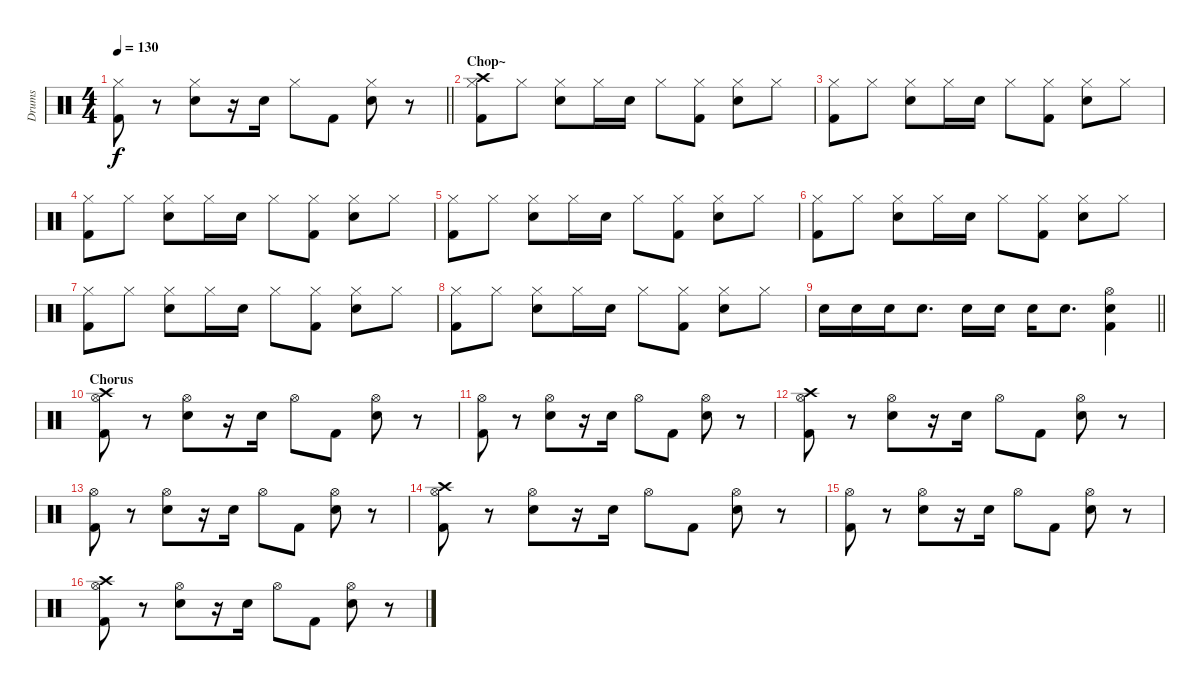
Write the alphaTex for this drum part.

\track ("Drums" "Drums") {instrument percussion}
\staff {score}
\articulation defaults
\ts (4 4)
\tempo 130
\clef neutral
\barLineRight lightlight
\ks c
("Hi-Hat (closed)" "Kick (hit) 2").8{dy f} r.8 ("Hi-Hat (closed)" "Snare (hit) 2").8 r.16 "Snare (hit) 2".16 "Hi-Hat (closed)".8 "Kick (hit) 2".8 ("Hi-Hat (closed)" "Snare (hit) 2").8 r.8 |
\section ("" "Chop~")
("Crash high (hit)" "Hi-Hat (closed)" "Kick (hit) 2").8 "Hi-Hat (closed)".8 ("Hi-Hat (closed)" "Snare (hit) 2").8 "Hi-Hat (closed)".16 "Snare (hit) 2".16 "Hi-Hat (closed)".8 ("Hi-Hat (closed)" "Kick (hit) 2").8 ("Hi-Hat (closed)" "Snare (hit) 2").8 "Hi-Hat (closed)".8 |
("Hi-Hat (closed)" "Kick (hit) 2").8 "Hi-Hat (closed)".8 ("Hi-Hat (closed)" "Snare (hit) 2").8 "Hi-Hat (closed)".16 "Snare (hit) 2".16 "Hi-Hat (closed)".8 ("Hi-Hat (closed)" "Kick (hit) 2").8 ("Hi-Hat (closed)" "Snare (hit) 2").8 "Hi-Hat (closed)".8 |
("Hi-Hat (closed)" "Kick (hit) 2").8 "Hi-Hat (closed)".8 ("Hi-Hat (closed)" "Snare (hit) 2").8 "Hi-Hat (closed)".16 "Snare (hit) 2".16 "Hi-Hat (closed)".8 ("Hi-Hat (closed)" "Kick (hit) 2").8 ("Hi-Hat (closed)" "Snare (hit) 2").8 "Hi-Hat (closed)".8 |
("Hi-Hat (closed)" "Kick (hit) 2").8 "Hi-Hat (closed)".8 ("Hi-Hat (closed)" "Snare (hit) 2").8 "Hi-Hat (closed)".16 "Snare (hit) 2".16 "Hi-Hat (closed)".8 ("Hi-Hat (closed)" "Kick (hit) 2").8 ("Hi-Hat (closed)" "Snare (hit) 2").8 "Hi-Hat (closed)".8 |
("Hi-Hat (closed)" "Kick (hit) 2").8 "Hi-Hat (closed)".8 ("Hi-Hat (closed)" "Snare (hit) 2").8 "Hi-Hat (closed)".16 "Snare (hit) 2".16 "Hi-Hat (closed)".8 ("Hi-Hat (closed)" "Kick (hit) 2").8 ("Hi-Hat (closed)" "Snare (hit) 2").8 "Hi-Hat (closed)".8 |
("Hi-Hat (closed)" "Kick (hit) 2").8 "Hi-Hat (closed)".8 ("Hi-Hat (closed)" "Snare (hit) 2").8 "Hi-Hat (closed)".16 "Snare (hit) 2".16 "Hi-Hat (closed)".8 ("Hi-Hat (closed)" "Kick (hit) 2").8 ("Hi-Hat (closed)" "Snare (hit) 2").8 "Hi-Hat (closed)".8 |
("Hi-Hat (closed)" "Kick (hit) 2").8 "Hi-Hat (closed)".8 ("Hi-Hat (closed)" "Snare (hit) 2").8 "Hi-Hat (closed)".16 "Snare (hit) 2".16 "Hi-Hat (closed)".8 ("Hi-Hat (closed)" "Kick (hit) 2").8 ("Hi-Hat (closed)" "Snare (hit) 2").8 "Hi-Hat (closed)".8 |
\barLineRight lightlight "Snare (hit) 2".16 "Snare (hit) 2".16 "Snare (hit) 2".16 "Snare (hit) 2".8{d} "Snare (hit) 2".16 "Snare (hit) 2".16 "Snare (hit) 2".16 "Snare (hit) 2".8{d}
("Hi-Hat (open)" "Snare (hit) 2" "Kick (hit) 2").4 |
\section ("" "Chorus")
("Crash high (hit)" "Hi-Hat (open)" "Kick (hit) 2").8 r.8 ("Hi-Hat (open)" "Snare (hit) 2").8 r.16 "Snare (hit) 2".16 "Hi-Hat (open)".8 "Kick (hit) 2".8 ("Hi-Hat (open)" "Snare (hit) 2").8 r.8 |
("Hi-Hat (open)" "Kick (hit) 2").8 r.8 ("Hi-Hat (open)" "Snare (hit) 2").8 r.16 "Snare (hit) 2".16 "Hi-Hat (open)".8 "Kick (hit) 2".8 ("Hi-Hat (open)" "Snare (hit) 2").8 r.8 |
("Crash high (hit)" "Hi-Hat (open)" "Kick (hit) 2").8 r.8 ("Hi-Hat (open)" "Snare (hit) 2").8 r.16 "Snare (hit) 2".16 "Hi-Hat (open)".8 "Kick (hit) 2".8 ("Hi-Hat (open)" "Snare (hit) 2").8 r.8 |
("Hi-Hat (open)" "Kick (hit) 2").8 r.8 ("Hi-Hat (open)" "Snare (hit) 2").8 r.16 "Snare (hit) 2".16 "Hi-Hat (open)".8 "Kick (hit) 2".8 ("Hi-Hat (open)" "Snare (hit) 2").8 r.8 |
("Crash high (hit)" "Hi-Hat (open)" "Kick (hit) 2").8 r.8 ("Hi-Hat (open)" "Snare (hit) 2").8 r.16 "Snare (hit) 2".16 "Hi-Hat (open)".8 "Kick (hit) 2".8 ("Hi-Hat (open)" "Snare (hit) 2").8 r.8 |
("Hi-Hat (open)" "Kick (hit) 2").8 r.8 ("Hi-Hat (open)" "Snare (hit) 2").8 r.16 "Snare (hit) 2".16 "Hi-Hat (open)".8 "Kick (hit) 2".8 ("Hi-Hat (open)" "Snare (hit) 2").8 r.8 |
("Crash high (hit)" "Hi-Hat (open)" "Kick (hit) 2").8 r.8 ("Hi-Hat (open)" "Snare (hit) 2").8 r.16 "Snare (hit) 2".16 "Hi-Hat (open)".8 "Kick (hit) 2".8 ("Hi-Hat (open)" "Snare (hit) 2").8 r.8
